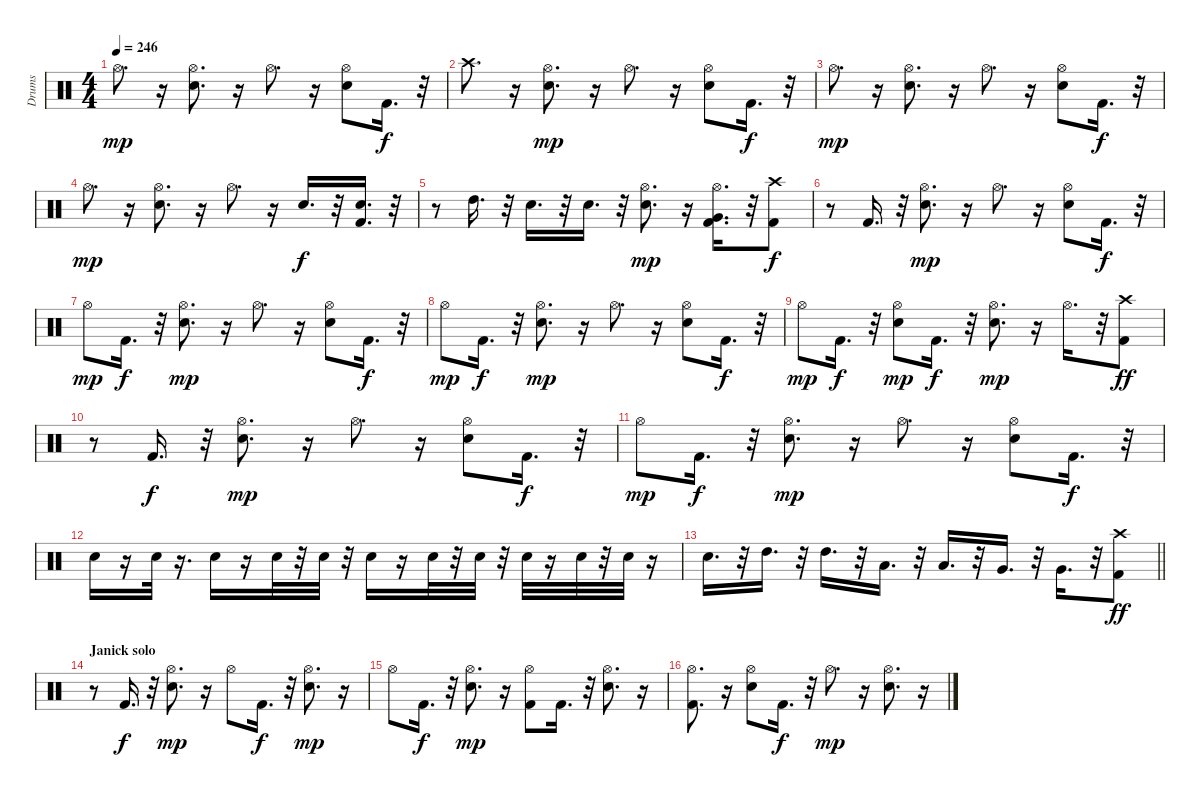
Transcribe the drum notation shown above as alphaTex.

\track ("Drums" "Drums") {instrument percussion}
\staff {score}
\articulation defaults
\ts (4 4)
\tempo 246
\clef neutral
\ks c "Hi-Hat (open)".8{d dy mp}
r.16 ("Hi-Hat (open)" "Electric Snare (hit)").8{d} r.16 "Hi-Hat (open)".8{d} r.16 ("Hi-Hat (open)" "Electric Snare (hit)").8 "Kick (hit) 2".16{d dy f} r.32 |
"Crash high (hit)".8{d} r.16 ("Electric Snare (hit)" "Hi-Hat (open)").8{d dy mp} r.16 "Hi-Hat (open)".8{d} r.16 ("Hi-Hat (open)" "Electric Snare (hit)").8 "Kick (hit) 2".16{d dy f} r.32 |
"Hi-Hat (open)".8{d dy mp} r.16 ("Hi-Hat (open)" "Electric Snare (hit)").8{d} r.16 "Hi-Hat (open)".8{d} r.16 ("Hi-Hat (open)" "Electric Snare (hit)").8 "Kick (hit) 2".16{d dy f} r.32 |
"Hi-Hat (open)".8{d dy mp} r.16 ("Hi-Hat (open)" "Electric Snare (hit)").8{d} r.16 "Hi-Hat (open)".8{d} r.16 "Electric Snare (hit)".16{d dy f} r.32 ("Kick (hit) 2" "Electric Snare (hit)").16{d} r.32 |
r.8 "High Tom (hit)".16{d} r.32 "Electric Snare (hit)".16{d} r.32 "Electric Snare (hit)".16{d} r.32 ("Hi-Hat (open)" "Electric Snare (hit)").8{d dy mp} r.16 ("Hi-Hat (open)" "Kick (hit) 2" "Very Low Tom (hit)").16{d} r.32 ("Kick (hit) 2" "Crash high (hit)").8{dy f} |
r.8 "Kick (hit) 2".16{d} r.32 ("Electric Snare (hit)" "Hi-Hat (open)").8{d dy mp} r.16 "Hi-Hat (open)".8{d} r.16 ("Electric Snare (hit)" "Hi-Hat (open)").8 "Kick (hit) 2".16{d dy f} r.32 |
"Hi-Hat (open)".8{dy mp} "Kick (hit) 2".16{d dy f} r.32 ("Electric Snare (hit)" "Hi-Hat (open)").8{d dy mp} r.16 "Hi-Hat (open)".8{d} r.16 ("Electric Snare (hit)" "Hi-Hat (open)").8 "Kick (hit) 2".16{d dy f} r.32 |
"Hi-Hat (open)".8{dy mp} "Kick (hit) 2".16{d dy f} r.32 ("Electric Snare (hit)" "Hi-Hat (open)").8{d dy mp} r.16 "Hi-Hat (open)".8{d} r.16 ("Electric Snare (hit)" "Hi-Hat (open)").8 "Kick (hit) 2".16{d dy f} r.32 |
"Hi-Hat (open)".8{dy mp} "Kick (hit) 2".16{d dy f} r.32 ("Electric Snare (hit)" "Hi-Hat (open)").8{dy mp} "Kick (hit) 2".16{d dy f} r.32 ("Electric Snare (hit)" "Hi-Hat (open)").8{d dy mp} r.16 "Hi-Hat (open)".16{d} r.32 ("Crash high (hit)" "Kick (hit) 2").8{dy ff} |
r.8 "Kick (hit) 2".16{d dy f} r.32 ("Electric Snare (hit)" "Hi-Hat (open)").8{d dy mp} r.16 "Hi-Hat (open)".8{d} r.16 ("Electric Snare (hit)" "Hi-Hat (open)").8 "Kick (hit) 2".16{d dy f} r.32 |
"Hi-Hat (open)".8{dy mp} "Kick (hit) 2".16{d dy f} r.32 ("Electric Snare (hit)" "Hi-Hat (open)").8{d dy mp} r.16 "Hi-Hat (open)".8{d} r.16 ("Electric Snare (hit)" "Hi-Hat (open)").8 "Kick (hit) 2".16{d dy f} r.32 |
"Electric Snare (hit)".16 r.16 "Electric Snare (hit)".32 r.16{d} "Electric Snare (hit)".16 r.16 "Electric Snare (hit)".32 r.32 "Electric Snare (hit)".32 r.32 "Electric Snare (hit)".16 r.16 "Electric Snare (hit)".32 r.32 "Electric Snare (hit)".32 r.32 "Electric Snare (hit)".32 r.16 "Electric Snare (hit)".32 r.32 "Electric Snare (hit)".32 r.16 |
\barLineRight lightlight "Electric Snare (hit)".16{d}
r.32 "High Tom (hit)".16{d} r.32 "High Tom (hit)".16{d} r.32 "Low Tom (hit)".16{d} r.32 "Low Tom (hit)".16{d} r.32 "Very Low Tom (hit)".16{d} r.32 "Very Low Tom (hit)".16{d} r.32 ("Kick (hit) 2" "Crash high (hit)").8{dy ff} |
\section ("" "Janick solo")
r.8 "Kick (hit) 2".16{d dy f} r.32 ("Electric Snare (hit)" "Hi-Hat (open)").8{d dy mp} r.16 "Hi-Hat (open)".8 "Kick (hit) 2".16{d dy f} r.32 ("Electric Snare (hit)" "Hi-Hat (open)").8{d dy mp} r.16 |
"Hi-Hat (open)".8 "Kick (hit) 2".16{d dy f} r.32 ("Electric Snare (hit)" "Hi-Hat (open)").8{d dy mp} r.16 ("Kick (hit) 2" "Hi-Hat (open)").8 "Kick (hit) 2".16{d} r.32 ("Electric Snare (hit)" "Hi-Hat (open)").8{d} r.16 |
("Hi-Hat (open)" "Kick (hit) 2").8{d} r.16 ("Hi-Hat (open)" "Electric Snare (hit)").8 "Kick (hit) 2".16{d dy f} r.32 "Hi-Hat (open)".8{d dy mp} r.16 ("Hi-Hat (open)" "Electric Snare (hit)").8{d} r.16
